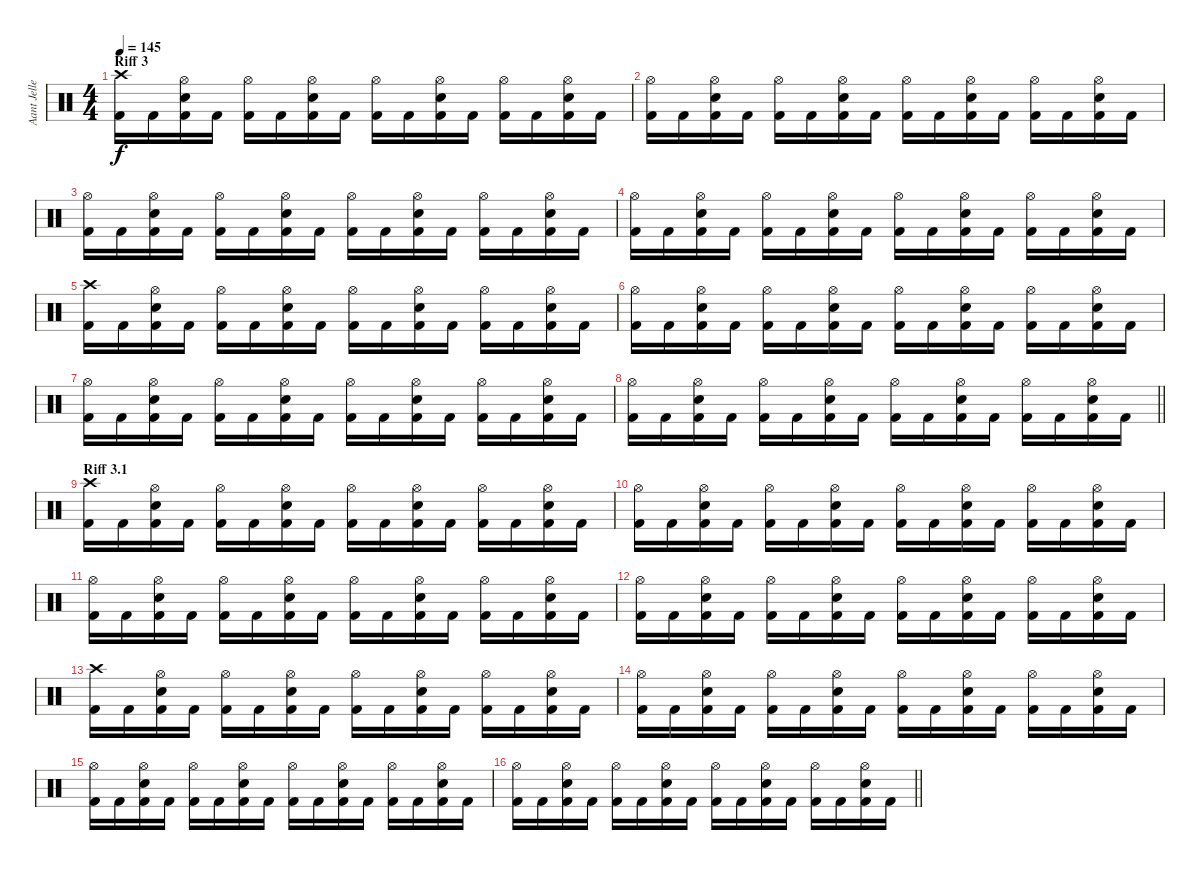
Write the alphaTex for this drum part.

\track ("Aant Jelle" "Aant Jelle") {instrument percussion}
\staff {score}
\articulation defaults
\ts (4 4)
\section ("" "Riff 3")
\tempo 145
\clef neutral
\ks c
("Crash high (hit)" "Kick (hit) 2").16{dy f} "Kick (hit) 2".16 ("Hi-Hat (open)" "Electric Snare (hit)" "Kick (hit) 2").16 "Kick (hit) 2".16 ("Hi-Hat (open)" "Kick (hit) 2").16 "Kick (hit) 2".16 ("Hi-Hat (open)" "Electric Snare (hit)" "Kick (hit) 2").16 "Kick (hit) 2".16 ("Hi-Hat (open)" "Kick (hit) 2").16 "Kick (hit) 2".16 ("Hi-Hat (open)" "Electric Snare (hit)" "Kick (hit) 2").16 "Kick (hit) 2".16 ("Hi-Hat (open)" "Kick (hit) 2").16 "Kick (hit) 2".16 ("Hi-Hat (open)" "Electric Snare (hit)" "Kick (hit) 2").16 "Kick (hit) 2".16 |
("Hi-Hat (open)" "Kick (hit) 2").16 "Kick (hit) 2".16 ("Hi-Hat (open)" "Electric Snare (hit)" "Kick (hit) 2").16 "Kick (hit) 2".16 ("Hi-Hat (open)" "Kick (hit) 2").16 "Kick (hit) 2".16 ("Hi-Hat (open)" "Electric Snare (hit)" "Kick (hit) 2").16 "Kick (hit) 2".16 ("Hi-Hat (open)" "Kick (hit) 2").16 "Kick (hit) 2".16 ("Hi-Hat (open)" "Electric Snare (hit)" "Kick (hit) 2").16 "Kick (hit) 2".16 ("Hi-Hat (open)" "Kick (hit) 2").16 "Kick (hit) 2".16 ("Hi-Hat (open)" "Electric Snare (hit)" "Kick (hit) 2").16 "Kick (hit) 2".16 |
("Hi-Hat (open)" "Kick (hit) 2").16 "Kick (hit) 2".16 ("Hi-Hat (open)" "Electric Snare (hit)" "Kick (hit) 2").16 "Kick (hit) 2".16 ("Hi-Hat (open)" "Kick (hit) 2").16 "Kick (hit) 2".16 ("Hi-Hat (open)" "Electric Snare (hit)" "Kick (hit) 2").16 "Kick (hit) 2".16 ("Hi-Hat (open)" "Kick (hit) 2").16 "Kick (hit) 2".16 ("Hi-Hat (open)" "Electric Snare (hit)" "Kick (hit) 2").16 "Kick (hit) 2".16 ("Hi-Hat (open)" "Kick (hit) 2").16 "Kick (hit) 2".16 ("Hi-Hat (open)" "Electric Snare (hit)" "Kick (hit) 2").16 "Kick (hit) 2".16 |
("Hi-Hat (open)" "Kick (hit) 2").16 "Kick (hit) 2".16 ("Hi-Hat (open)" "Electric Snare (hit)" "Kick (hit) 2").16 "Kick (hit) 2".16 ("Hi-Hat (open)" "Kick (hit) 2").16 "Kick (hit) 2".16 ("Hi-Hat (open)" "Electric Snare (hit)" "Kick (hit) 2").16 "Kick (hit) 2".16 ("Hi-Hat (open)" "Kick (hit) 2").16 "Kick (hit) 2".16 ("Hi-Hat (open)" "Electric Snare (hit)" "Kick (hit) 2").16 "Kick (hit) 2".16 ("Hi-Hat (open)" "Kick (hit) 2").16 "Kick (hit) 2".16 ("Hi-Hat (open)" "Electric Snare (hit)" "Kick (hit) 2").16 "Kick (hit) 2".16 |
("Crash high (hit)" "Kick (hit) 2").16 "Kick (hit) 2".16 ("Hi-Hat (open)" "Electric Snare (hit)" "Kick (hit) 2").16 "Kick (hit) 2".16 ("Hi-Hat (open)" "Kick (hit) 2").16 "Kick (hit) 2".16 ("Hi-Hat (open)" "Electric Snare (hit)" "Kick (hit) 2").16 "Kick (hit) 2".16 ("Hi-Hat (open)" "Kick (hit) 2").16 "Kick (hit) 2".16 ("Hi-Hat (open)" "Electric Snare (hit)" "Kick (hit) 2").16 "Kick (hit) 2".16 ("Hi-Hat (open)" "Kick (hit) 2").16 "Kick (hit) 2".16 ("Hi-Hat (open)" "Electric Snare (hit)" "Kick (hit) 2").16 "Kick (hit) 2".16 |
("Hi-Hat (open)" "Kick (hit) 2").16 "Kick (hit) 2".16 ("Hi-Hat (open)" "Electric Snare (hit)" "Kick (hit) 2").16 "Kick (hit) 2".16 ("Hi-Hat (open)" "Kick (hit) 2").16 "Kick (hit) 2".16 ("Hi-Hat (open)" "Electric Snare (hit)" "Kick (hit) 2").16 "Kick (hit) 2".16 ("Hi-Hat (open)" "Kick (hit) 2").16 "Kick (hit) 2".16 ("Hi-Hat (open)" "Electric Snare (hit)" "Kick (hit) 2").16 "Kick (hit) 2".16 ("Hi-Hat (open)" "Kick (hit) 2").16 "Kick (hit) 2".16 ("Hi-Hat (open)" "Electric Snare (hit)" "Kick (hit) 2").16 "Kick (hit) 2".16 |
("Hi-Hat (open)" "Kick (hit) 2").16 "Kick (hit) 2".16 ("Hi-Hat (open)" "Electric Snare (hit)" "Kick (hit) 2").16 "Kick (hit) 2".16 ("Hi-Hat (open)" "Kick (hit) 2").16 "Kick (hit) 2".16 ("Hi-Hat (open)" "Electric Snare (hit)" "Kick (hit) 2").16 "Kick (hit) 2".16 ("Hi-Hat (open)" "Kick (hit) 2").16 "Kick (hit) 2".16 ("Hi-Hat (open)" "Electric Snare (hit)" "Kick (hit) 2").16 "Kick (hit) 2".16 ("Hi-Hat (open)" "Kick (hit) 2").16 "Kick (hit) 2".16 ("Hi-Hat (open)" "Electric Snare (hit)" "Kick (hit) 2").16 "Kick (hit) 2".16 |
\barLineRight lightlight
("Hi-Hat (open)" "Kick (hit) 2").16 "Kick (hit) 2".16 ("Hi-Hat (open)" "Electric Snare (hit)" "Kick (hit) 2").16 "Kick (hit) 2".16 ("Hi-Hat (open)" "Kick (hit) 2").16 "Kick (hit) 2".16 ("Hi-Hat (open)" "Electric Snare (hit)" "Kick (hit) 2").16 "Kick (hit) 2".16 ("Hi-Hat (open)" "Kick (hit) 2").16 "Kick (hit) 2".16 ("Hi-Hat (open)" "Electric Snare (hit)" "Kick (hit) 2").16 "Kick (hit) 2".16 ("Hi-Hat (open)" "Kick (hit) 2").16 "Kick (hit) 2".16 ("Hi-Hat (open)" "Electric Snare (hit)" "Kick (hit) 2").16 "Kick (hit) 2".16 |
\section ("" "Riff 3.1")
("Crash high (hit)" "Kick (hit) 2").16 "Kick (hit) 2".16 ("Hi-Hat (open)" "Electric Snare (hit)" "Kick (hit) 2").16 "Kick (hit) 2".16 ("Hi-Hat (open)" "Kick (hit) 2").16 "Kick (hit) 2".16 ("Hi-Hat (open)" "Electric Snare (hit)" "Kick (hit) 2").16 "Kick (hit) 2".16 ("Hi-Hat (open)" "Kick (hit) 2").16 "Kick (hit) 2".16 ("Hi-Hat (open)" "Electric Snare (hit)" "Kick (hit) 2").16 "Kick (hit) 2".16 ("Hi-Hat (open)" "Kick (hit) 2").16 "Kick (hit) 2".16 ("Hi-Hat (open)" "Electric Snare (hit)" "Kick (hit) 2").16 "Kick (hit) 2".16 |
("Hi-Hat (open)" "Kick (hit) 2").16 "Kick (hit) 2".16 ("Hi-Hat (open)" "Electric Snare (hit)" "Kick (hit) 2").16 "Kick (hit) 2".16 ("Hi-Hat (open)" "Kick (hit) 2").16 "Kick (hit) 2".16 ("Hi-Hat (open)" "Electric Snare (hit)" "Kick (hit) 2").16 "Kick (hit) 2".16 ("Hi-Hat (open)" "Kick (hit) 2").16 "Kick (hit) 2".16 ("Hi-Hat (open)" "Electric Snare (hit)" "Kick (hit) 2").16 "Kick (hit) 2".16 ("Hi-Hat (open)" "Kick (hit) 2").16 "Kick (hit) 2".16 ("Hi-Hat (open)" "Electric Snare (hit)" "Kick (hit) 2").16 "Kick (hit) 2".16 |
("Hi-Hat (open)" "Kick (hit) 2").16 "Kick (hit) 2".16 ("Hi-Hat (open)" "Electric Snare (hit)" "Kick (hit) 2").16 "Kick (hit) 2".16 ("Hi-Hat (open)" "Kick (hit) 2").16 "Kick (hit) 2".16 ("Hi-Hat (open)" "Electric Snare (hit)" "Kick (hit) 2").16 "Kick (hit) 2".16 ("Hi-Hat (open)" "Kick (hit) 2").16 "Kick (hit) 2".16 ("Hi-Hat (open)" "Electric Snare (hit)" "Kick (hit) 2").16 "Kick (hit) 2".16 ("Hi-Hat (open)" "Kick (hit) 2").16 "Kick (hit) 2".16 ("Hi-Hat (open)" "Electric Snare (hit)" "Kick (hit) 2").16 "Kick (hit) 2".16 |
("Hi-Hat (open)" "Kick (hit) 2").16 "Kick (hit) 2".16 ("Hi-Hat (open)" "Electric Snare (hit)" "Kick (hit) 2").16 "Kick (hit) 2".16 ("Hi-Hat (open)" "Kick (hit) 2").16 "Kick (hit) 2".16 ("Hi-Hat (open)" "Electric Snare (hit)" "Kick (hit) 2").16 "Kick (hit) 2".16 ("Hi-Hat (open)" "Kick (hit) 2").16 "Kick (hit) 2".16 ("Hi-Hat (open)" "Electric Snare (hit)" "Kick (hit) 2").16 "Kick (hit) 2".16 ("Hi-Hat (open)" "Kick (hit) 2").16 "Kick (hit) 2".16 ("Hi-Hat (open)" "Electric Snare (hit)" "Kick (hit) 2").16 "Kick (hit) 2".16 |
("Crash high (hit)" "Kick (hit) 2").16 "Kick (hit) 2".16 ("Hi-Hat (open)" "Electric Snare (hit)" "Kick (hit) 2").16 "Kick (hit) 2".16 ("Hi-Hat (open)" "Kick (hit) 2").16 "Kick (hit) 2".16 ("Hi-Hat (open)" "Electric Snare (hit)" "Kick (hit) 2").16 "Kick (hit) 2".16 ("Hi-Hat (open)" "Kick (hit) 2").16 "Kick (hit) 2".16 ("Hi-Hat (open)" "Electric Snare (hit)" "Kick (hit) 2").16 "Kick (hit) 2".16 ("Hi-Hat (open)" "Kick (hit) 2").16 "Kick (hit) 2".16 ("Hi-Hat (open)" "Electric Snare (hit)" "Kick (hit) 2").16 "Kick (hit) 2".16 |
("Hi-Hat (open)" "Kick (hit) 2").16 "Kick (hit) 2".16 ("Hi-Hat (open)" "Electric Snare (hit)" "Kick (hit) 2").16 "Kick (hit) 2".16 ("Hi-Hat (open)" "Kick (hit) 2").16 "Kick (hit) 2".16 ("Hi-Hat (open)" "Electric Snare (hit)" "Kick (hit) 2").16 "Kick (hit) 2".16 ("Hi-Hat (open)" "Kick (hit) 2").16 "Kick (hit) 2".16 ("Hi-Hat (open)" "Electric Snare (hit)" "Kick (hit) 2").16 "Kick (hit) 2".16 ("Hi-Hat (open)" "Kick (hit) 2").16 "Kick (hit) 2".16 ("Hi-Hat (open)" "Electric Snare (hit)" "Kick (hit) 2").16 "Kick (hit) 2".16 |
("Hi-Hat (open)" "Kick (hit) 2").16 "Kick (hit) 2".16 ("Hi-Hat (open)" "Electric Snare (hit)" "Kick (hit) 2").16 "Kick (hit) 2".16 ("Hi-Hat (open)" "Kick (hit) 2").16 "Kick (hit) 2".16 ("Hi-Hat (open)" "Electric Snare (hit)" "Kick (hit) 2").16 "Kick (hit) 2".16 ("Hi-Hat (open)" "Kick (hit) 2").16 "Kick (hit) 2".16 ("Hi-Hat (open)" "Electric Snare (hit)" "Kick (hit) 2").16 "Kick (hit) 2".16 ("Hi-Hat (open)" "Kick (hit) 2").16 "Kick (hit) 2".16 ("Hi-Hat (open)" "Electric Snare (hit)" "Kick (hit) 2").16 "Kick (hit) 2".16 |
\barLineRight lightlight
("Hi-Hat (open)" "Kick (hit) 2").16 "Kick (hit) 2".16 ("Hi-Hat (open)" "Electric Snare (hit)" "Kick (hit) 2").16 "Kick (hit) 2".16 ("Hi-Hat (open)" "Kick (hit) 2").16 "Kick (hit) 2".16 ("Hi-Hat (open)" "Electric Snare (hit)" "Kick (hit) 2").16 "Kick (hit) 2".16 ("Hi-Hat (open)" "Kick (hit) 2").16 "Kick (hit) 2".16 ("Hi-Hat (open)" "Electric Snare (hit)" "Kick (hit) 2").16 "Kick (hit) 2".16 ("Hi-Hat (open)" "Kick (hit) 2").16 "Kick (hit) 2".16 ("Hi-Hat (open)" "Electric Snare (hit)" "Kick (hit) 2").16 "Kick (hit) 2".16
